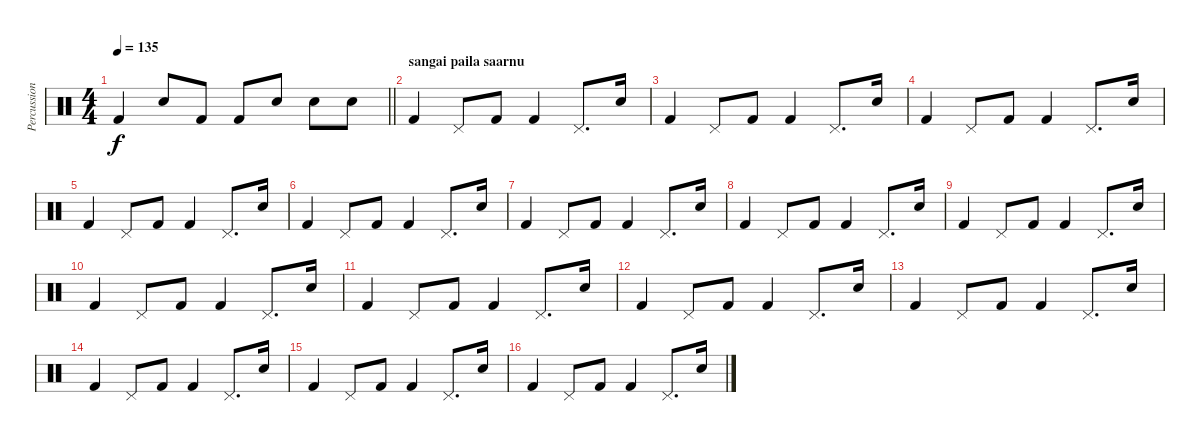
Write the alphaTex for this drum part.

\track ("Percussion" "Percussion") {instrument percussion}
\staff {score}
\articulation defaults
\ts (4 4)
\tempo 135
\clef neutral
\barLineRight lightlight
\ks c "Kick (hit) 2".4{dy f} "Electric Snare (hit)".8 "Kick (hit) 2".8 "Kick (hit) 2".8 "Electric Snare (hit)".8 "Electric Snare (hit)".8 "Electric Snare (hit)".8
|
\section ("" "sangai paila saarnu")
"Kick (hit) 2".4 "Pedal Hi-Hat (hit)".8 "Kick (hit) 2".8 "Kick (hit) 2".4 "Pedal Hi-Hat (hit)".8{d} "Snare (hit)".16 |
"Kick (hit) 2".4 "Pedal Hi-Hat (hit)".8 "Kick (hit) 2".8 "Kick (hit) 2".4 "Pedal Hi-Hat (hit)".8{d} "Snare (hit)".16 |
"Kick (hit) 2".4 "Pedal Hi-Hat (hit)".8 "Kick (hit) 2".8 "Kick (hit) 2".4 "Pedal Hi-Hat (hit)".8{d} "Snare (hit)".16 |
"Kick (hit) 2".4 "Pedal Hi-Hat (hit)".8 "Kick (hit) 2".8 "Kick (hit) 2".4 "Pedal Hi-Hat (hit)".8{d} "Snare (hit)".16 |
"Kick (hit) 2".4 "Pedal Hi-Hat (hit)".8 "Kick (hit) 2".8 "Kick (hit) 2".4 "Pedal Hi-Hat (hit)".8{d} "Snare (hit)".16 |
"Kick (hit) 2".4 "Pedal Hi-Hat (hit)".8 "Kick (hit) 2".8 "Kick (hit) 2".4 "Pedal Hi-Hat (hit)".8{d} "Snare (hit)".16 |
"Kick (hit) 2".4 "Pedal Hi-Hat (hit)".8 "Kick (hit) 2".8 "Kick (hit) 2".4 "Pedal Hi-Hat (hit)".8{d} "Snare (hit)".16 |
"Kick (hit) 2".4 "Pedal Hi-Hat (hit)".8 "Kick (hit) 2".8 "Kick (hit) 2".4 "Pedal Hi-Hat (hit)".8{d} "Snare (hit)".16 |
"Kick (hit) 2".4 "Pedal Hi-Hat (hit)".8 "Kick (hit) 2".8 "Kick (hit) 2".4 "Pedal Hi-Hat (hit)".8{d} "Snare (hit)".16 |
"Kick (hit) 2".4 "Pedal Hi-Hat (hit)".8 "Kick (hit) 2".8 "Kick (hit) 2".4 "Pedal Hi-Hat (hit)".8{d} "Snare (hit)".16 |
"Kick (hit) 2".4 "Pedal Hi-Hat (hit)".8 "Kick (hit) 2".8 "Kick (hit) 2".4 "Pedal Hi-Hat (hit)".8{d} "Snare (hit)".16 |
"Kick (hit) 2".4 "Pedal Hi-Hat (hit)".8 "Kick (hit) 2".8 "Kick (hit) 2".4 "Pedal Hi-Hat (hit)".8{d} "Snare (hit)".16 |
"Kick (hit) 2".4 "Pedal Hi-Hat (hit)".8 "Kick (hit) 2".8 "Kick (hit) 2".4 "Pedal Hi-Hat (hit)".8{d} "Snare (hit)".16 |
"Kick (hit) 2".4 "Pedal Hi-Hat (hit)".8 "Kick (hit) 2".8 "Kick (hit) 2".4 "Pedal Hi-Hat (hit)".8{d} "Snare (hit)".16 |
"Kick (hit) 2".4 "Pedal Hi-Hat (hit)".8 "Kick (hit) 2".8 "Kick (hit) 2".4 "Pedal Hi-Hat (hit)".8{d} "Snare (hit)".16
